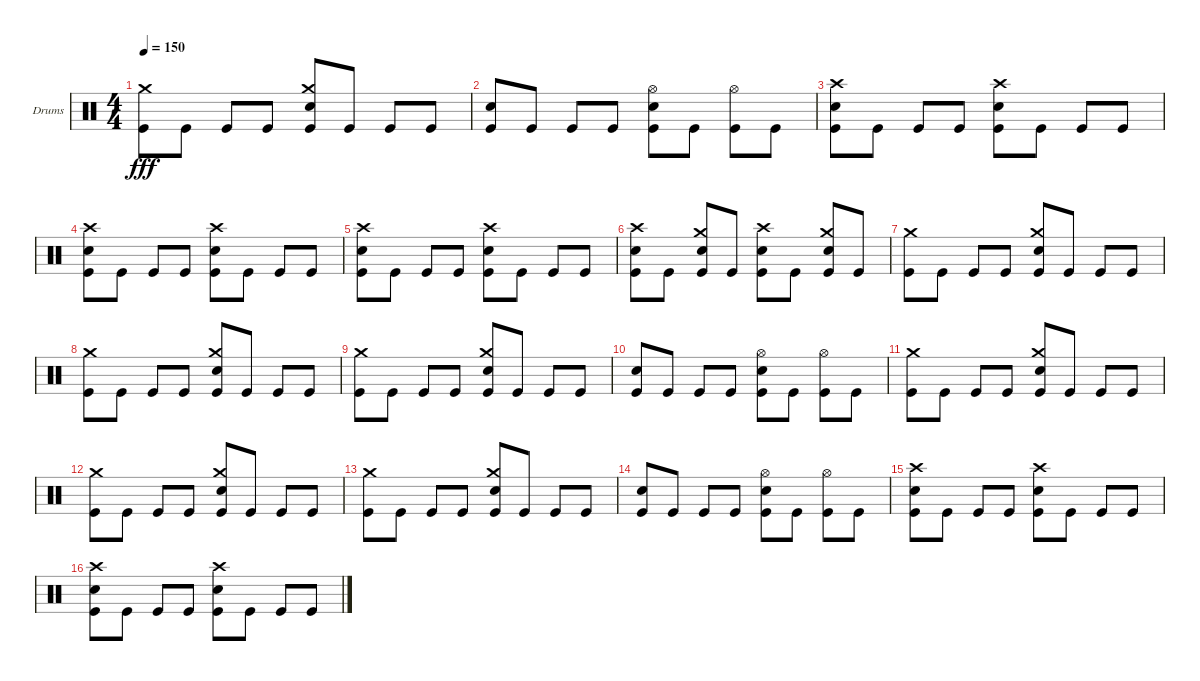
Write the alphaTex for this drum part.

\bracketExtendMode groupsimilarinstruments
\firstSystemTrackNameOrientation horizontal
\otherSystemsTrackNameOrientation horizontal
\track ("Corey" "Drums") {instrument percussion}
\staff {score}
\articulation defaults
\ts (4 4)
\tempo 150
\clef neutral
\ks c
("Kick (hit)" "Crash medium (hit)").8{dy fff} "Kick (hit)".8 "Kick (hit)".8 "Kick (hit)".8 ("Kick (hit)" "Snare (hit) 2" "Crash medium (hit)").8 "Kick (hit)".8 "Kick (hit)".8 "Kick (hit)".8 |
("Kick (hit)" "Snare (hit) 2").8 "Kick (hit)".8 "Kick (hit)".8 "Kick (hit)".8 ("Kick (hit)" "Snare (hit) 2" "Hi-Hat (open)").8 "Kick (hit)".8 ("Kick (hit)" "Hi-Hat (open)").8 "Kick (hit)".8 |
("Kick (hit)" "Snare (hit) 2" "Crash high (hit)").8 "Kick (hit)".8 "Kick (hit)".8 "Kick (hit)".8 ("Kick (hit)" "Snare (hit) 2" "Crash high (hit)").8 "Kick (hit)".8 "Kick (hit)".8 "Kick (hit)".8 |
("Kick (hit)" "Snare (hit) 2" "Crash high (hit)").8 "Kick (hit)".8 "Kick (hit)".8 "Kick (hit)".8 ("Kick (hit)" "Snare (hit) 2" "Crash high (hit)").8 "Kick (hit)".8 "Kick (hit)".8 "Kick (hit)".8 |
("Kick (hit)" "Snare (hit) 2" "Crash high (hit)").8 "Kick (hit)".8 "Kick (hit)".8 "Kick (hit)".8 ("Kick (hit)" "Snare (hit) 2" "Crash high (hit)").8 "Kick (hit)".8 "Kick (hit)".8 "Kick (hit)".8 |
("Kick (hit)" "Snare (hit) 2" "Crash high (hit)").8 "Kick (hit)".8 ("Kick (hit)" "Snare (hit) 2" "Crash medium (hit)").8 "Kick (hit)".8 ("Kick (hit)" "Snare (hit) 2" "Crash high (hit)").8 "Kick (hit)".8 ("Kick (hit)" "Snare (hit) 2" "Crash medium (hit)").8 "Kick (hit)".8 |
("Kick (hit)" "Crash medium (hit)").8 "Kick (hit)".8 "Kick (hit)".8 "Kick (hit)".8 ("Kick (hit)" "Snare (hit) 2" "Crash medium (hit)").8 "Kick (hit)".8 "Kick (hit)".8 "Kick (hit)".8 |
("Kick (hit)" "Crash medium (hit)").8 "Kick (hit)".8 "Kick (hit)".8 "Kick (hit)".8 ("Kick (hit)" "Snare (hit) 2" "Crash medium (hit)").8 "Kick (hit)".8 "Kick (hit)".8 "Kick (hit)".8 |
("Kick (hit)" "Crash medium (hit)").8 "Kick (hit)".8 "Kick (hit)".8 "Kick (hit)".8 ("Kick (hit)" "Snare (hit) 2" "Crash medium (hit)").8 "Kick (hit)".8 "Kick (hit)".8 "Kick (hit)".8 |
("Kick (hit)" "Snare (hit) 2").8 "Kick (hit)".8 "Kick (hit)".8 "Kick (hit)".8 ("Kick (hit)" "Snare (hit) 2" "Hi-Hat (open)").8 "Kick (hit)".8 ("Kick (hit)" "Hi-Hat (open)").8 "Kick (hit)".8 |
("Kick (hit)" "Crash medium (hit)").8 "Kick (hit)".8 "Kick (hit)".8 "Kick (hit)".8 ("Kick (hit)" "Snare (hit) 2" "Crash medium (hit)").8 "Kick (hit)".8 "Kick (hit)".8 "Kick (hit)".8 |
("Kick (hit)" "Crash medium (hit)").8 "Kick (hit)".8 "Kick (hit)".8 "Kick (hit)".8 ("Kick (hit)" "Snare (hit) 2" "Crash medium (hit)").8 "Kick (hit)".8 "Kick (hit)".8 "Kick (hit)".8 |
("Kick (hit)" "Crash medium (hit)").8 "Kick (hit)".8 "Kick (hit)".8 "Kick (hit)".8 ("Kick (hit)" "Snare (hit) 2" "Crash medium (hit)").8 "Kick (hit)".8 "Kick (hit)".8 "Kick (hit)".8 |
("Kick (hit)" "Snare (hit) 2").8 "Kick (hit)".8 "Kick (hit)".8 "Kick (hit)".8 ("Kick (hit)" "Snare (hit) 2" "Hi-Hat (open)").8 "Kick (hit)".8 ("Kick (hit)" "Hi-Hat (open)").8 "Kick (hit)".8 |
("Kick (hit)" "Snare (hit) 2" "Crash high (hit)").8 "Kick (hit)".8 "Kick (hit)".8 "Kick (hit)".8 ("Kick (hit)" "Snare (hit) 2" "Crash high (hit)").8 "Kick (hit)".8 "Kick (hit)".8 "Kick (hit)".8 |
("Kick (hit)" "Snare (hit) 2" "Crash high (hit)").8 "Kick (hit)".8 "Kick (hit)".8 "Kick (hit)".8 ("Kick (hit)" "Snare (hit) 2" "Crash high (hit)").8 "Kick (hit)".8 "Kick (hit)".8 "Kick (hit)".8
